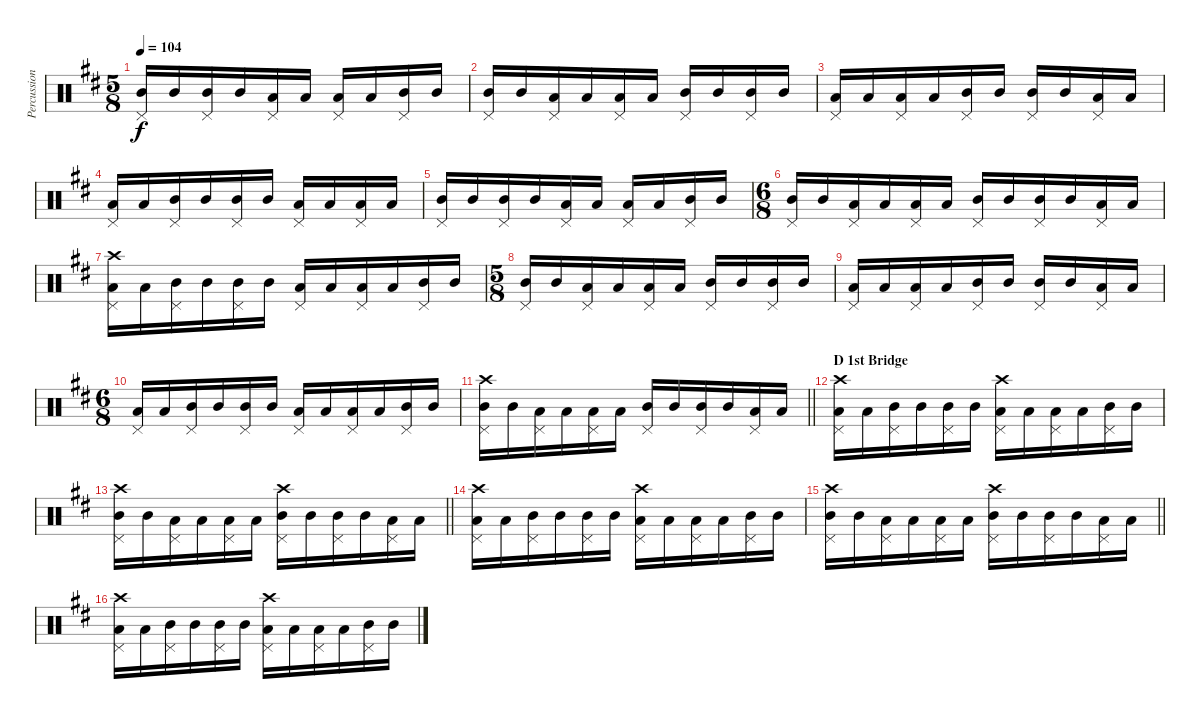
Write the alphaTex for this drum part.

\track ("Percussion" "Percussion") {instrument percussion}
\staff {score}
\articulation defaults
\ts (5 8)
\tempo 104
\clef neutral
\ks d
("Pedal Hi-Hat (hit)" "Mid Tom (hit)").16{dy f} "Mid Tom (hit)".16 ("Pedal Hi-Hat (hit)" "Mid Tom (hit)").16 "Mid Tom (hit)".16 ("Pedal Hi-Hat (hit)" "Low Tom (hit)").16 "Low Tom (hit)".16 ("Pedal Hi-Hat (hit)" "Low Tom (hit)").16 "Low Tom (hit)".16 ("Pedal Hi-Hat (hit)" "Mid Tom (hit)").16 "Mid Tom (hit)".16 |
("Pedal Hi-Hat (hit)" "Mid Tom (hit)").16 "Mid Tom (hit)".16 ("Pedal Hi-Hat (hit)" "Low Tom (hit)").16 "Low Tom (hit)".16 ("Pedal Hi-Hat (hit)" "Low Tom (hit)").16 "Low Tom (hit)".16 ("Pedal Hi-Hat (hit)" "Mid Tom (hit)").16 "Mid Tom (hit)".16 ("Pedal Hi-Hat (hit)" "Mid Tom (hit)").16 "Mid Tom (hit)".16 |
("Pedal Hi-Hat (hit)" "Low Tom (hit)").16 "Low Tom (hit)".16 ("Pedal Hi-Hat (hit)" "Low Tom (hit)").16 "Low Tom (hit)".16 ("Pedal Hi-Hat (hit)" "Mid Tom (hit)").16 "Mid Tom (hit)".16 ("Pedal Hi-Hat (hit)" "Mid Tom (hit)").16 "Mid Tom (hit)".16 ("Pedal Hi-Hat (hit)" "Low Tom (hit)").16 "Low Tom (hit)".16 |
("Pedal Hi-Hat (hit)" "Low Tom (hit)").16 "Low Tom (hit)".16 ("Pedal Hi-Hat (hit)" "Mid Tom (hit)").16 "Mid Tom (hit)".16 ("Pedal Hi-Hat (hit)" "Mid Tom (hit)").16 "Mid Tom (hit)".16 ("Pedal Hi-Hat (hit)" "Low Tom (hit)").16 "Low Tom (hit)".16 ("Pedal Hi-Hat (hit)" "Low Tom (hit)").16 "Low Tom (hit)".16 |
("Pedal Hi-Hat (hit)" "Mid Tom (hit)").16 "Mid Tom (hit)".16 ("Pedal Hi-Hat (hit)" "Mid Tom (hit)").16 "Mid Tom (hit)".16 ("Pedal Hi-Hat (hit)" "Low Tom (hit)").16 "Low Tom (hit)".16 ("Pedal Hi-Hat (hit)" "Low Tom (hit)").16 "Low Tom (hit)".16 ("Pedal Hi-Hat (hit)" "Mid Tom (hit)").16 "Mid Tom (hit)".16 |
\ts (6 8)
("Pedal Hi-Hat (hit)" "Mid Tom (hit)").16 "Mid Tom (hit)".16 ("Pedal Hi-Hat (hit)" "Low Tom (hit)").16 "Low Tom (hit)".16 ("Pedal Hi-Hat (hit)" "Low Tom (hit)").16 "Low Tom (hit)".16 ("Pedal Hi-Hat (hit)" "Mid Tom (hit)").16 "Mid Tom (hit)".16 ("Pedal Hi-Hat (hit)" "Mid Tom (hit)").16 "Mid Tom (hit)".16 ("Pedal Hi-Hat (hit)" "Low Tom (hit)").16 "Low Tom (hit)".16 |
("Pedal Hi-Hat (hit)" "Crash high (hit)" "Low Tom (hit)").16 "Low Tom (hit)".16 ("Pedal Hi-Hat (hit)" "Mid Tom (hit)").16 "Mid Tom (hit)".16 ("Pedal Hi-Hat (hit)" "Mid Tom (hit)").16 "Mid Tom (hit)".16 ("Pedal Hi-Hat (hit)" "Low Tom (hit)").16 "Low Tom (hit)".16 ("Pedal Hi-Hat (hit)" "Low Tom (hit)").16 "Low Tom (hit)".16 ("Pedal Hi-Hat (hit)" "Mid Tom (hit)").16 "Mid Tom (hit)".16 |
\ts (5 8)
("Pedal Hi-Hat (hit)" "Mid Tom (hit)").16 "Mid Tom (hit)".16 ("Pedal Hi-Hat (hit)" "Low Tom (hit)").16 "Low Tom (hit)".16 ("Pedal Hi-Hat (hit)" "Low Tom (hit)").16 "Low Tom (hit)".16 ("Pedal Hi-Hat (hit)" "Mid Tom (hit)").16 "Mid Tom (hit)".16 ("Pedal Hi-Hat (hit)" "Mid Tom (hit)").16 "Mid Tom (hit)".16 |
("Pedal Hi-Hat (hit)" "Low Tom (hit)").16 "Low Tom (hit)".16 ("Pedal Hi-Hat (hit)" "Low Tom (hit)").16 "Low Tom (hit)".16 ("Pedal Hi-Hat (hit)" "Mid Tom (hit)").16 "Mid Tom (hit)".16 ("Pedal Hi-Hat (hit)" "Mid Tom (hit)").16 "Mid Tom (hit)".16 ("Pedal Hi-Hat (hit)" "Low Tom (hit)").16 "Low Tom (hit)".16 |
\ts (6 8)
("Pedal Hi-Hat (hit)" "Low Tom (hit)").16 "Low Tom (hit)".16 ("Pedal Hi-Hat (hit)" "Mid Tom (hit)").16 "Mid Tom (hit)".16 ("Pedal Hi-Hat (hit)" "Mid Tom (hit)").16 "Mid Tom (hit)".16 ("Pedal Hi-Hat (hit)" "Low Tom (hit)").16 "Low Tom (hit)".16 ("Pedal Hi-Hat (hit)" "Low Tom (hit)").16 "Low Tom (hit)".16 ("Pedal Hi-Hat (hit)" "Mid Tom (hit)").16 "Mid Tom (hit)".16 |
\barLineRight lightlight
("Pedal Hi-Hat (hit)" "Crash high (hit)" "Mid Tom (hit)").16 "Mid Tom (hit)".16 ("Pedal Hi-Hat (hit)" "Low Tom (hit)").16 "Low Tom (hit)".16 ("Pedal Hi-Hat (hit)" "Low Tom (hit)").16 "Low Tom (hit)".16 ("Pedal Hi-Hat (hit)" "Mid Tom (hit)").16 "Mid Tom (hit)".16 ("Pedal Hi-Hat (hit)" "Mid Tom (hit)").16 "Mid Tom (hit)".16 ("Pedal Hi-Hat (hit)" "Low Tom (hit)").16 "Low Tom (hit)".16 |
\section ("" "D 1st Bridge")
("Pedal Hi-Hat (hit)" "Crash high (hit)" "Low Tom (hit)").16 "Low Tom (hit)".16 ("Pedal Hi-Hat (hit)" "Mid Tom (hit)").16 "Mid Tom (hit)".16 ("Pedal Hi-Hat (hit)" "Mid Tom (hit)").16 "Mid Tom (hit)".16 ("Pedal Hi-Hat (hit)" "Crash high (hit)" "Low Tom (hit)").16 "Low Tom (hit)".16 ("Pedal Hi-Hat (hit)" "Low Tom (hit)").16 "Low Tom (hit)".16 ("Pedal Hi-Hat (hit)" "Mid Tom (hit)").16 "Mid Tom (hit)".16 |
\barLineRight lightlight
("Pedal Hi-Hat (hit)" "Crash high (hit)" "Mid Tom (hit)").16 "Mid Tom (hit)".16 ("Pedal Hi-Hat (hit)" "Low Tom (hit)").16 "Low Tom (hit)".16 ("Pedal Hi-Hat (hit)" "Low Tom (hit)").16 "Low Tom (hit)".16 ("Pedal Hi-Hat (hit)" "Crash high (hit)" "Mid Tom (hit)").16 "Mid Tom (hit)".16 ("Pedal Hi-Hat (hit)" "Mid Tom (hit)").16 "Mid Tom (hit)".16 ("Pedal Hi-Hat (hit)" "Low Tom (hit)").16 "Low Tom (hit)".16 |
("Pedal Hi-Hat (hit)" "Crash high (hit)" "Low Tom (hit)").16 "Low Tom (hit)".16 ("Pedal Hi-Hat (hit)" "Mid Tom (hit)").16 "Mid Tom (hit)".16 ("Pedal Hi-Hat (hit)" "Mid Tom (hit)").16 "Mid Tom (hit)".16 ("Pedal Hi-Hat (hit)" "Crash high (hit)" "Low Tom (hit)").16 "Low Tom (hit)".16 ("Pedal Hi-Hat (hit)" "Low Tom (hit)").16 "Low Tom (hit)".16 ("Pedal Hi-Hat (hit)" "Mid Tom (hit)").16 "Mid Tom (hit)".16 |
\barLineRight lightlight
("Pedal Hi-Hat (hit)" "Crash high (hit)" "Mid Tom (hit)").16 "Mid Tom (hit)".16 ("Pedal Hi-Hat (hit)" "Low Tom (hit)").16 "Low Tom (hit)".16 ("Pedal Hi-Hat (hit)" "Low Tom (hit)").16 "Low Tom (hit)".16 ("Pedal Hi-Hat (hit)" "Crash high (hit)" "Mid Tom (hit)").16 "Mid Tom (hit)".16 ("Pedal Hi-Hat (hit)" "Mid Tom (hit)").16 "Mid Tom (hit)".16 ("Pedal Hi-Hat (hit)" "Low Tom (hit)").16 "Low Tom (hit)".16 |
("Pedal Hi-Hat (hit)" "Crash high (hit)" "Low Tom (hit)").16 "Low Tom (hit)".16 ("Pedal Hi-Hat (hit)" "Mid Tom (hit)").16 "Mid Tom (hit)".16 ("Pedal Hi-Hat (hit)" "Mid Tom (hit)").16 "Mid Tom (hit)".16 ("Pedal Hi-Hat (hit)" "Crash high (hit)" "Low Tom (hit)").16 "Low Tom (hit)".16 ("Pedal Hi-Hat (hit)" "Low Tom (hit)").16 "Low Tom (hit)".16 ("Pedal Hi-Hat (hit)" "Mid Tom (hit)").16 "Mid Tom (hit)".16
